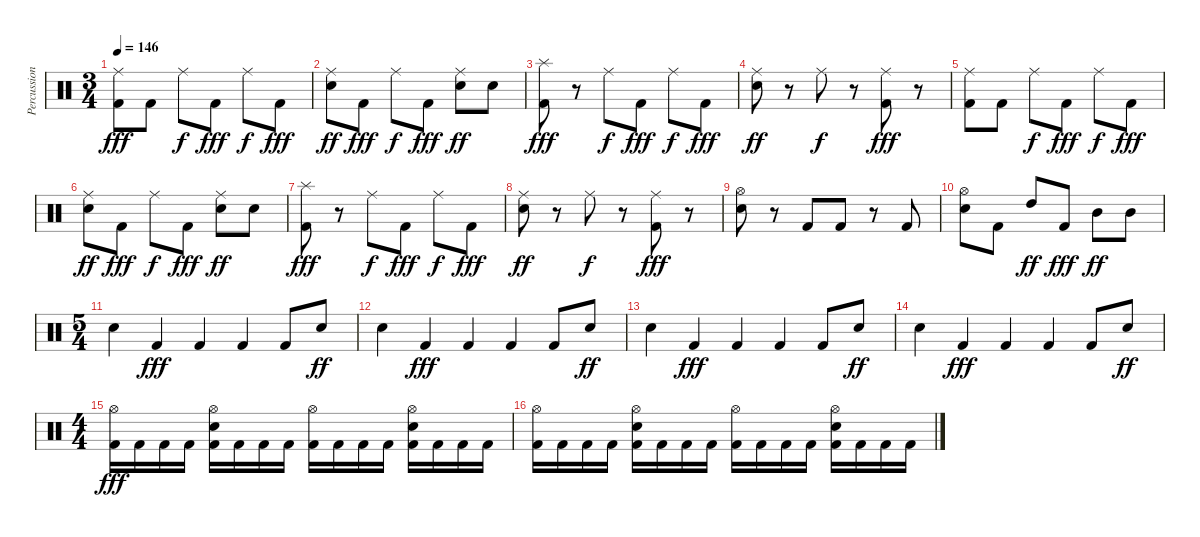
\track ("Percussions" "Percussion") {instrument percussion}
\staff {score}
\articulation defaults
\ts (3 4)
\tempo 146
\clef neutral
\ks c
("Ride (middle)" "Kick (hit) 2").8{dy fff} "Kick (hit) 2".8 "Ride (middle)".8{dy f} "Kick (hit) 2".8{dy fff} "Ride (middle)".8{dy f} "Kick (hit) 2".8{dy fff} |
("Ride (middle)" "Snare (hit) 2").8{dy ff} "Kick (hit) 2".8{dy fff} "Ride (middle)".8{dy f} "Kick (hit) 2".8{dy fff} ("Ride (middle)" "Snare (hit) 2").8{dy ff} "Snare (hit) 2".8 |
("Splash (hit)" "Kick (hit) 2").8{dy fff} r.8 "Ride (middle)".8{dy f} "Kick (hit) 2".8{dy fff} "Ride (middle)".8{dy f} "Kick (hit) 2".8{dy fff} |
("Ride (middle)" "Snare (hit) 2").8{dy ff} r.8 "Ride (middle)".8{dy f} r.8 ("Ride (middle)" "Kick (hit) 2").8{dy fff} r.8 |
("Ride (middle)" "Kick (hit) 2").8 "Kick (hit) 2".8 "Ride (middle)".8{dy f} "Kick (hit) 2".8{dy fff} "Ride (middle)".8{dy f} "Kick (hit) 2".8{dy fff} |
("Ride (middle)" "Snare (hit) 2").8{dy ff} "Kick (hit) 2".8{dy fff} "Ride (middle)".8{dy f} "Kick (hit) 2".8{dy fff} ("Ride (middle)" "Snare (hit) 2").8{dy ff} "Snare (hit) 2".8 |
("Splash (hit)" "Kick (hit) 2").8{dy fff} r.8 "Ride (middle)".8{dy f} "Kick (hit) 2".8{dy fff} "Ride (middle)".8{dy f} "Kick (hit) 2".8{dy fff} |
("Ride (middle)" "Snare (hit) 2").8{dy ff} r.8 "Ride (middle)".8{dy f} r.8 ("Ride (middle)" "Kick (hit) 2").8{dy fff} r.8 |
("Hi-Hat (open)" "Snare (hit) 2").8 r.8 "Kick (hit) 2".8 "Kick (hit) 2".8 r.8 "Kick (hit) 2".8 |
("Hi-Hat (open)" "Snare (hit) 2").8 "Kick (hit) 2".8 "High Tom (hit)".8{dy ff} "Kick (hit) 2".8{dy fff} "Mid Tom (hit)".8{dy ff} "Mid Tom (hit)".8 |
\ts (5 4)
"Snare (hit) 2".4 "Kick (hit) 2".4{dy fff} "Kick (hit) 2".4 "Kick (hit) 2".4 "Kick (hit) 2".8 "Snare (hit) 2".8{dy ff} |
"Snare (hit) 2".4 "Kick (hit) 2".4{dy fff} "Kick (hit) 2".4 "Kick (hit) 2".4 "Kick (hit) 2".8 "Snare (hit) 2".8{dy ff} |
"Snare (hit) 2".4 "Kick (hit) 2".4{dy fff} "Kick (hit) 2".4 "Kick (hit) 2".4 "Kick (hit) 2".8 "Snare (hit) 2".8{dy ff} |
"Snare (hit) 2".4 "Kick (hit) 2".4{dy fff} "Kick (hit) 2".4 "Kick (hit) 2".4 "Kick (hit) 2".8 "Snare (hit) 2".8{dy ff} |
\ts (4 4)
("Hi-Hat (open)" "Kick (hit) 2").16{dy fff} "Kick (hit) 2".16 "Kick (hit) 2".16 "Kick (hit) 2".16 ("Hi-Hat (open)" "Snare (hit) 2" "Kick (hit) 2").16 "Kick (hit) 2".16 "Kick (hit) 2".16 "Kick (hit) 2".16 ("Hi-Hat (open)" "Kick (hit) 2").16 "Kick (hit) 2".16 "Kick (hit) 2".16 "Kick (hit) 2".16 ("Hi-Hat (open)" "Snare (hit) 2" "Kick (hit) 2").16 "Kick (hit) 2".16 "Kick (hit) 2".16 "Kick (hit) 2".16 |
("Hi-Hat (open)" "Kick (hit) 2").16 "Kick (hit) 2".16 "Kick (hit) 2".16 "Kick (hit) 2".16 ("Hi-Hat (open)" "Snare (hit) 2" "Kick (hit) 2").16 "Kick (hit) 2".16 "Kick (hit) 2".16 "Kick (hit) 2".16 ("Hi-Hat (open)" "Kick (hit) 2").16 "Kick (hit) 2".16 "Kick (hit) 2".16 "Kick (hit) 2".16 ("Hi-Hat (open)" "Snare (hit) 2" "Kick (hit) 2").16 "Kick (hit) 2".16 "Kick (hit) 2".16 "Kick (hit) 2".16
